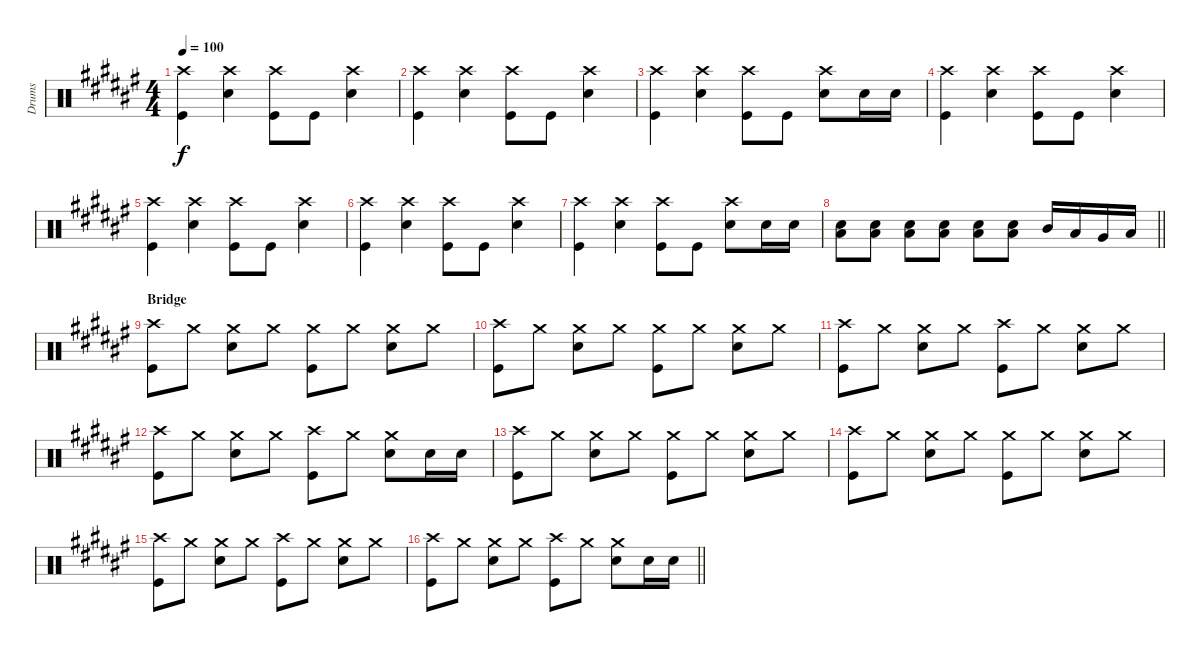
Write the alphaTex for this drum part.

\track ("Drums" "Drums") {instrument percussion}
\staff {score}
\articulation defaults
\ts (4 4)
\tempo 100
\clef neutral
\ks f#
("Crash high (hit)" "Kick (hit)").4{dy f} ("Crash high (hit)" "Snare (hit) 2").4 ("Crash high (hit)" "Kick (hit)").8 "Kick (hit)".8 ("Crash high (hit)" "Snare (hit) 2").4 |
("Crash high (hit)" "Kick (hit)").4 ("Crash high (hit)" "Snare (hit) 2").4 ("Crash high (hit)" "Kick (hit)").8 "Kick (hit)".8 ("Crash high (hit)" "Snare (hit) 2").4 |
("Crash high (hit)" "Kick (hit)").4 ("Crash high (hit)" "Snare (hit) 2").4 ("Crash high (hit)" "Kick (hit)").8 "Kick (hit)".8 ("Crash high (hit)" "Snare (hit) 2").8 "Snare (hit) 2".16 "Snare (hit) 2".16 |
("Crash high (hit)" "Kick (hit)").4 ("Crash high (hit)" "Snare (hit) 2").4 ("Crash high (hit)" "Kick (hit)").8 "Kick (hit)".8 ("Crash high (hit)" "Snare (hit) 2").4 |
("Crash high (hit)" "Kick (hit)").4 ("Crash high (hit)" "Snare (hit) 2").4 ("Crash high (hit)" "Kick (hit)").8 "Kick (hit)".8 ("Crash high (hit)" "Snare (hit) 2").4 |
("Crash high (hit)" "Kick (hit)").4 ("Crash high (hit)" "Snare (hit) 2").4 ("Crash high (hit)" "Kick (hit)").8 "Kick (hit)".8 ("Crash high (hit)" "Snare (hit) 2").4 |
("Crash high (hit)" "Kick (hit)").4 ("Crash high (hit)" "Snare (hit) 2").4 ("Crash high (hit)" "Kick (hit)").8 "Kick (hit)".8 ("Crash high (hit)" "Snare (hit) 2").8 "Snare (hit) 2".16 "Snare (hit) 2".16 |
\barLineRight lightlight
("Low Floor Tom (hit)" "Snare (hit) 2").8 ("Low Floor Tom (hit)" "Snare (hit) 2").8 ("Low Floor Tom (hit)" "Snare (hit) 2").8 ("Low Floor Tom (hit)" "Snare (hit) 2").8 ("Low Floor Tom (hit)" "Snare (hit) 2").8 ("Low Floor Tom (hit)" "Snare (hit) 2").8 "Mid Tom (hit)".16 "Low Tom (hit)".16 "Very Low Tom (hit)".16 "Low Floor Tom (hit)".16 |
\section ("" "Bridge")
("Crash high (hit)" "Kick (hit)").8 "Crash medium (hit)".8 ("Crash medium (hit)" "Snare (hit) 2").8 "Crash medium (hit)".8 ("Crash medium (hit)" "Kick (hit)").8 "Crash medium (hit)".8 ("Crash medium (hit)" "Snare (hit) 2").8 "Crash medium (hit)".8 |
("Crash high (hit)" "Kick (hit)").8 "Crash medium (hit)".8 ("Crash medium (hit)" "Snare (hit) 2").8 "Crash medium (hit)".8 ("Crash medium (hit)" "Kick (hit)").8 "Crash medium (hit)".8 ("Crash medium (hit)" "Snare (hit) 2").8 "Crash medium (hit)".8 |
("Crash high (hit)" "Kick (hit)").8 "Crash medium (hit)".8 ("Crash medium (hit)" "Snare (hit) 2").8 "Crash medium (hit)".8 ("Crash high (hit)" "Kick (hit)").8 "Crash medium (hit)".8 ("Crash medium (hit)" "Snare (hit) 2").8 "Crash medium (hit)".8 |
("Crash high (hit)" "Kick (hit)").8 "Crash medium (hit)".8 ("Crash medium (hit)" "Snare (hit) 2").8 "Crash medium (hit)".8 ("Crash high (hit)" "Kick (hit)").8 "Crash medium (hit)".8 ("Crash medium (hit)" "Snare (hit) 2").8 "Snare (hit) 2".16 "Snare (hit) 2".16 |
("Crash high (hit)" "Kick (hit)").8 "Crash medium (hit)".8 ("Crash medium (hit)" "Snare (hit) 2").8 "Crash medium (hit)".8 ("Crash medium (hit)" "Kick (hit)").8 "Crash medium (hit)".8 ("Crash medium (hit)" "Snare (hit) 2").8 "Crash medium (hit)".8 |
("Crash high (hit)" "Kick (hit)").8 "Crash medium (hit)".8 ("Crash medium (hit)" "Snare (hit) 2").8 "Crash medium (hit)".8 ("Crash medium (hit)" "Kick (hit)").8 "Crash medium (hit)".8 ("Crash medium (hit)" "Snare (hit) 2").8 "Crash medium (hit)".8 |
("Crash high (hit)" "Kick (hit)").8 "Crash medium (hit)".8 ("Crash medium (hit)" "Snare (hit) 2").8 "Crash medium (hit)".8 ("Crash high (hit)" "Kick (hit)").8 "Crash medium (hit)".8 ("Crash medium (hit)" "Snare (hit) 2").8 "Crash medium (hit)".8 |
\barLineRight lightlight
("Crash high (hit)" "Kick (hit)").8 "Crash medium (hit)".8 ("Crash medium (hit)" "Snare (hit) 2").8 "Crash medium (hit)".8 ("Crash high (hit)" "Kick (hit)").8 "Crash medium (hit)".8 ("Crash medium (hit)" "Snare (hit) 2").8 "Snare (hit) 2".16 "Snare (hit) 2".16
